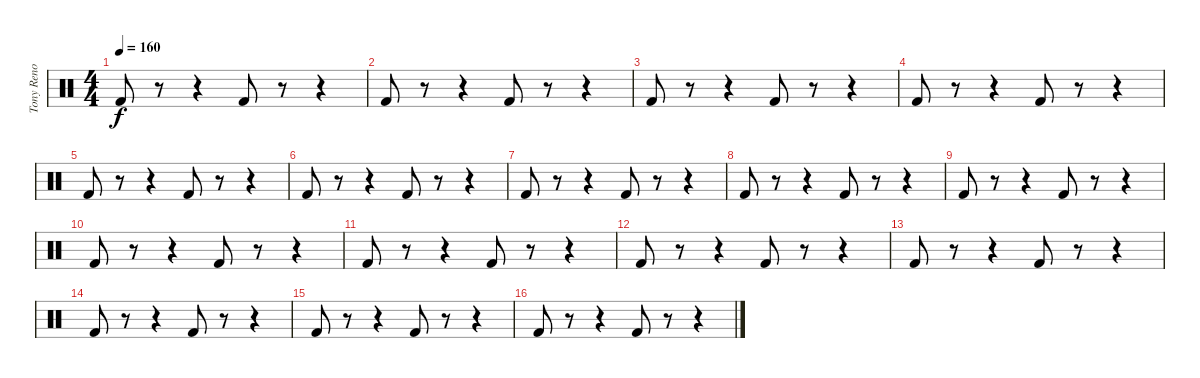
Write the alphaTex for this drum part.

\track ("Tony Reno" "Tony Reno") {instrument percussion}
\staff {score}
\articulation defaults
\ts (4 4)
\tempo 160
\clef neutral
\ks c "Kick (hit) 2".8{dy f}
r.8 r.4 "Kick (hit) 2".8 r.8 r.4 |
"Kick (hit) 2".8 r.8 r.4 "Kick (hit) 2".8 r.8 r.4 |
"Kick (hit) 2".8 r.8 r.4 "Kick (hit) 2".8 r.8 r.4 |
"Kick (hit) 2".8 r.8 r.4 "Kick (hit) 2".8 r.8 r.4 |
"Kick (hit) 2".8 r.8 r.4 "Kick (hit) 2".8 r.8 r.4 |
"Kick (hit) 2".8 r.8 r.4 "Kick (hit) 2".8 r.8 r.4 |
"Kick (hit) 2".8 r.8 r.4 "Kick (hit) 2".8 r.8 r.4 |
"Kick (hit) 2".8 r.8 r.4 "Kick (hit) 2".8 r.8 r.4 |
"Kick (hit) 2".8 r.8 r.4 "Kick (hit) 2".8 r.8 r.4 |
"Kick (hit) 2".8 r.8 r.4 "Kick (hit) 2".8 r.8 r.4 |
"Kick (hit) 2".8 r.8 r.4 "Kick (hit) 2".8 r.8 r.4 |
"Kick (hit) 2".8 r.8 r.4 "Kick (hit) 2".8 r.8 r.4 |
"Kick (hit) 2".8 r.8 r.4 "Kick (hit) 2".8 r.8 r.4 |
"Kick (hit) 2".8 r.8 r.4 "Kick (hit) 2".8 r.8 r.4 |
"Kick (hit) 2".8 r.8 r.4 "Kick (hit) 2".8 r.8 r.4 |
"Kick (hit) 2".8 r.8 r.4 "Kick (hit) 2".8 r.8 r.4
